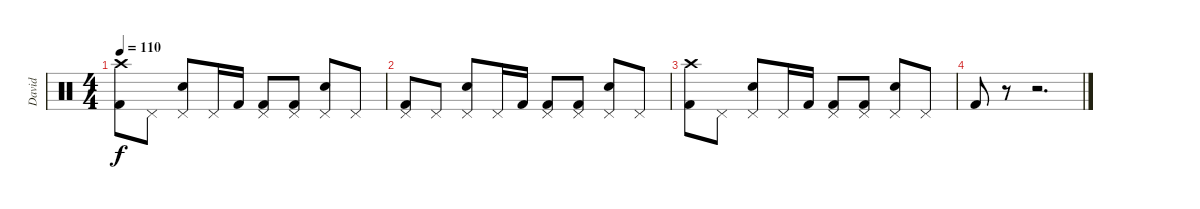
\track ("David" "David") {instrument percussion}
\staff {score}
\articulation defaults
\ts (4 4)
\tempo 110
\clef neutral
\ks c
("Crash high (hit)" "Kick (hit) 2").8{dy f} "Pedal Hi-Hat (hit)".8 ("Pedal Hi-Hat (hit)" "Electric Snare (hit)").8 "Pedal Hi-Hat (hit)".16 "Kick (hit) 2".16 ("Pedal Hi-Hat (hit)" "Kick (hit) 2").8 ("Pedal Hi-Hat (hit)" "Kick (hit) 2").8 ("Pedal Hi-Hat (hit)" "Electric Snare (hit)").8 "Pedal Hi-Hat (hit)".8 |
("Pedal Hi-Hat (hit)" "Kick (hit) 2").8 "Pedal Hi-Hat (hit)".8 ("Pedal Hi-Hat (hit)" "Electric Snare (hit)").8 "Pedal Hi-Hat (hit)".16 "Kick (hit) 2".16 ("Pedal Hi-Hat (hit)" "Kick (hit) 2").8 ("Pedal Hi-Hat (hit)" "Kick (hit) 2").8 ("Pedal Hi-Hat (hit)" "Electric Snare (hit)").8 "Pedal Hi-Hat (hit)".8 |
("Crash high (hit)" "Kick (hit) 2").8 "Pedal Hi-Hat (hit)".8 ("Pedal Hi-Hat (hit)" "Electric Snare (hit)").8 "Pedal Hi-Hat (hit)".16 "Kick (hit) 2".16 ("Pedal Hi-Hat (hit)" "Kick (hit) 2").8 ("Pedal Hi-Hat (hit)" "Kick (hit) 2").8 ("Pedal Hi-Hat (hit)" "Electric Snare (hit)").8 "Pedal Hi-Hat (hit)".8 |
"Kick (hit) 2".8 r.8 r.2{d}
